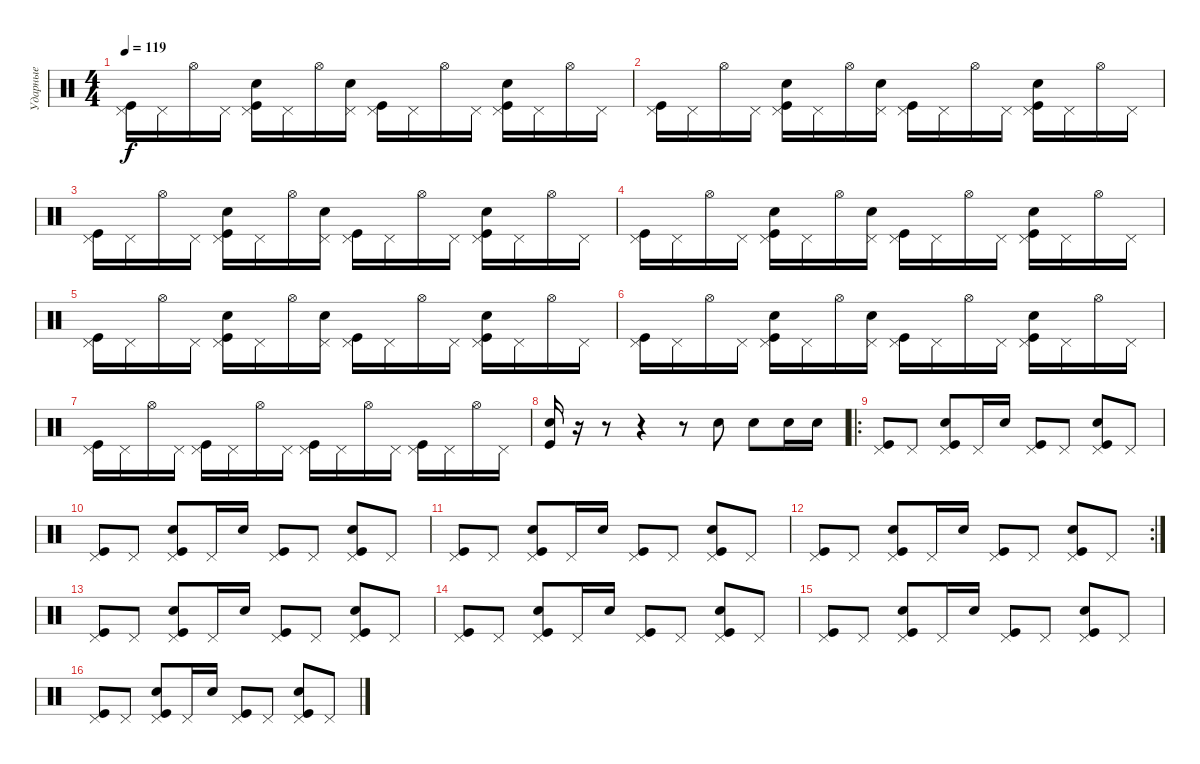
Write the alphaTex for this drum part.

\track ("Ударные" "Ударные") {instrument percussion}
\staff {score}
\articulation defaults
\ts (4 4)
\tempo 119
\clef neutral
\ks c
("Kick (hit)" "Pedal Hi-Hat (hit)").16{dy f} "Pedal Hi-Hat (hit)".16 "Hi-Hat (open)".16 "Pedal Hi-Hat (hit)".16 ("Kick (hit)" "Electric Snare (hit)" "Pedal Hi-Hat (hit)").16 "Pedal Hi-Hat (hit)".16 "Hi-Hat (open)".16 ("Electric Snare (hit)" "Pedal Hi-Hat (hit)").16 ("Kick (hit)" "Pedal Hi-Hat (hit)").16 "Pedal Hi-Hat (hit)".16 "Hi-Hat (open)".16 "Pedal Hi-Hat (hit)".16 ("Kick (hit)" "Electric Snare (hit)" "Pedal Hi-Hat (hit)").16 "Pedal Hi-Hat (hit)".16 "Hi-Hat (open)".16 "Pedal Hi-Hat (hit)".16 |
("Kick (hit)" "Pedal Hi-Hat (hit)").16 "Pedal Hi-Hat (hit)".16 "Hi-Hat (open)".16 "Pedal Hi-Hat (hit)".16 ("Kick (hit)" "Electric Snare (hit)" "Pedal Hi-Hat (hit)").16 "Pedal Hi-Hat (hit)".16 "Hi-Hat (open)".16 ("Electric Snare (hit)" "Pedal Hi-Hat (hit)").16 ("Kick (hit)" "Pedal Hi-Hat (hit)").16 "Pedal Hi-Hat (hit)".16 "Hi-Hat (open)".16 "Pedal Hi-Hat (hit)".16 ("Kick (hit)" "Electric Snare (hit)" "Pedal Hi-Hat (hit)").16 "Pedal Hi-Hat (hit)".16 "Hi-Hat (open)".16 "Pedal Hi-Hat (hit)".16 |
("Kick (hit)" "Pedal Hi-Hat (hit)").16 "Pedal Hi-Hat (hit)".16 "Hi-Hat (open)".16 "Pedal Hi-Hat (hit)".16 ("Kick (hit)" "Electric Snare (hit)" "Pedal Hi-Hat (hit)").16 "Pedal Hi-Hat (hit)".16 "Hi-Hat (open)".16 ("Electric Snare (hit)" "Pedal Hi-Hat (hit)").16 ("Kick (hit)" "Pedal Hi-Hat (hit)").16 "Pedal Hi-Hat (hit)".16 "Hi-Hat (open)".16 "Pedal Hi-Hat (hit)".16 ("Kick (hit)" "Electric Snare (hit)" "Pedal Hi-Hat (hit)").16 "Pedal Hi-Hat (hit)".16 "Hi-Hat (open)".16 "Pedal Hi-Hat (hit)".16 |
("Kick (hit)" "Pedal Hi-Hat (hit)").16 "Pedal Hi-Hat (hit)".16 "Hi-Hat (open)".16 "Pedal Hi-Hat (hit)".16 ("Kick (hit)" "Electric Snare (hit)" "Pedal Hi-Hat (hit)").16 "Pedal Hi-Hat (hit)".16 "Hi-Hat (open)".16 ("Electric Snare (hit)" "Pedal Hi-Hat (hit)").16 ("Kick (hit)" "Pedal Hi-Hat (hit)").16 "Pedal Hi-Hat (hit)".16 "Hi-Hat (open)".16 "Pedal Hi-Hat (hit)".16 ("Kick (hit)" "Electric Snare (hit)" "Pedal Hi-Hat (hit)").16 "Pedal Hi-Hat (hit)".16 "Hi-Hat (open)".16 "Pedal Hi-Hat (hit)".16 |
("Kick (hit)" "Pedal Hi-Hat (hit)").16 "Pedal Hi-Hat (hit)".16 "Hi-Hat (open)".16 "Pedal Hi-Hat (hit)".16 ("Kick (hit)" "Electric Snare (hit)" "Pedal Hi-Hat (hit)").16 "Pedal Hi-Hat (hit)".16 "Hi-Hat (open)".16 ("Electric Snare (hit)" "Pedal Hi-Hat (hit)").16 ("Kick (hit)" "Pedal Hi-Hat (hit)").16 "Pedal Hi-Hat (hit)".16 "Hi-Hat (open)".16 "Pedal Hi-Hat (hit)".16 ("Kick (hit)" "Electric Snare (hit)" "Pedal Hi-Hat (hit)").16 "Pedal Hi-Hat (hit)".16 "Hi-Hat (open)".16 "Pedal Hi-Hat (hit)".16 |
("Kick (hit)" "Pedal Hi-Hat (hit)").16 "Pedal Hi-Hat (hit)".16 "Hi-Hat (open)".16 "Pedal Hi-Hat (hit)".16 ("Kick (hit)" "Electric Snare (hit)" "Pedal Hi-Hat (hit)").16 "Pedal Hi-Hat (hit)".16 "Hi-Hat (open)".16 ("Electric Snare (hit)" "Pedal Hi-Hat (hit)").16 ("Kick (hit)" "Pedal Hi-Hat (hit)").16 "Pedal Hi-Hat (hit)".16 "Hi-Hat (open)".16 "Pedal Hi-Hat (hit)".16 ("Kick (hit)" "Electric Snare (hit)" "Pedal Hi-Hat (hit)").16 "Pedal Hi-Hat (hit)".16 "Hi-Hat (open)".16 "Pedal Hi-Hat (hit)".16 |
("Kick (hit)" "Pedal Hi-Hat (hit)").16 "Pedal Hi-Hat (hit)".16 "Hi-Hat (open)".16 "Pedal Hi-Hat (hit)".16 ("Kick (hit)" "Pedal Hi-Hat (hit)").16 "Pedal Hi-Hat (hit)".16 "Hi-Hat (open)".16 "Pedal Hi-Hat (hit)".16 ("Kick (hit)" "Pedal Hi-Hat (hit)").16 "Pedal Hi-Hat (hit)".16 "Hi-Hat (open)".16 "Pedal Hi-Hat (hit)".16 ("Kick (hit)" "Pedal Hi-Hat (hit)").16 "Pedal Hi-Hat (hit)".16 "Hi-Hat (open)".16 "Pedal Hi-Hat (hit)".16 |
("Kick (hit)" "Electric Snare (hit)").16 r.16 r.8 r.4 r.8 "Snare (hit) 2".8 "Snare (hit) 2".8 "Snare (hit) 2".16 "Snare (hit) 2".16 |
\ro
("Kick (hit)" "Pedal Hi-Hat (hit)").8 "Pedal Hi-Hat (hit)".8 ("Kick (hit)" "Snare (hit) 2" "Pedal Hi-Hat (hit)").8 "Pedal Hi-Hat (hit)".16 "Snare (hit) 2".16 ("Kick (hit)" "Pedal Hi-Hat (hit)").8 "Pedal Hi-Hat (hit)".8 ("Kick (hit)" "Snare (hit) 2" "Pedal Hi-Hat (hit)").8 "Pedal Hi-Hat (hit)".8 |
("Kick (hit)" "Pedal Hi-Hat (hit)").8 "Pedal Hi-Hat (hit)".8 ("Kick (hit)" "Snare (hit) 2" "Pedal Hi-Hat (hit)").8 "Pedal Hi-Hat (hit)".16 "Snare (hit) 2".16 ("Kick (hit)" "Pedal Hi-Hat (hit)").8 "Pedal Hi-Hat (hit)".8 ("Kick (hit)" "Snare (hit) 2" "Pedal Hi-Hat (hit)").8 "Pedal Hi-Hat (hit)".8 |
("Kick (hit)" "Pedal Hi-Hat (hit)").8 "Pedal Hi-Hat (hit)".8 ("Kick (hit)" "Snare (hit) 2" "Pedal Hi-Hat (hit)").8 "Pedal Hi-Hat (hit)".16 "Snare (hit) 2".16 ("Kick (hit)" "Pedal Hi-Hat (hit)").8 "Pedal Hi-Hat (hit)".8 ("Kick (hit)" "Snare (hit) 2" "Pedal Hi-Hat (hit)").8 "Pedal Hi-Hat (hit)".8 |
\rc 2
("Kick (hit)" "Pedal Hi-Hat (hit)").8 "Pedal Hi-Hat (hit)".8 ("Kick (hit)" "Snare (hit) 2" "Pedal Hi-Hat (hit)").8 "Pedal Hi-Hat (hit)".16 "Snare (hit) 2".16 ("Kick (hit)" "Pedal Hi-Hat (hit)").8 "Pedal Hi-Hat (hit)".8 ("Kick (hit)" "Snare (hit) 2" "Pedal Hi-Hat (hit)").8 "Pedal Hi-Hat (hit)".8 |
("Kick (hit)" "Pedal Hi-Hat (hit)").8 "Pedal Hi-Hat (hit)".8 ("Kick (hit)" "Snare (hit) 2" "Pedal Hi-Hat (hit)").8 "Pedal Hi-Hat (hit)".16 "Snare (hit) 2".16 ("Kick (hit)" "Pedal Hi-Hat (hit)").8 "Pedal Hi-Hat (hit)".8 ("Kick (hit)" "Snare (hit) 2" "Pedal Hi-Hat (hit)").8 "Pedal Hi-Hat (hit)".8 |
("Kick (hit)" "Pedal Hi-Hat (hit)").8 "Pedal Hi-Hat (hit)".8 ("Kick (hit)" "Snare (hit) 2" "Pedal Hi-Hat (hit)").8 "Pedal Hi-Hat (hit)".16 "Snare (hit) 2".16 ("Kick (hit)" "Pedal Hi-Hat (hit)").8 "Pedal Hi-Hat (hit)".8 ("Kick (hit)" "Snare (hit) 2" "Pedal Hi-Hat (hit)").8 "Pedal Hi-Hat (hit)".8 |
("Kick (hit)" "Pedal Hi-Hat (hit)").8 "Pedal Hi-Hat (hit)".8 ("Kick (hit)" "Snare (hit) 2" "Pedal Hi-Hat (hit)").8 "Pedal Hi-Hat (hit)".16 "Snare (hit) 2".16 ("Kick (hit)" "Pedal Hi-Hat (hit)").8 "Pedal Hi-Hat (hit)".8 ("Kick (hit)" "Snare (hit) 2" "Pedal Hi-Hat (hit)").8 "Pedal Hi-Hat (hit)".8 |
("Kick (hit)" "Pedal Hi-Hat (hit)").8 "Pedal Hi-Hat (hit)".8 ("Kick (hit)" "Snare (hit) 2" "Pedal Hi-Hat (hit)").8 "Pedal Hi-Hat (hit)".16 "Snare (hit) 2".16 ("Kick (hit)" "Pedal Hi-Hat (hit)").8 "Pedal Hi-Hat (hit)".8 ("Kick (hit)" "Snare (hit) 2" "Pedal Hi-Hat (hit)").8 "Pedal Hi-Hat (hit)".8
